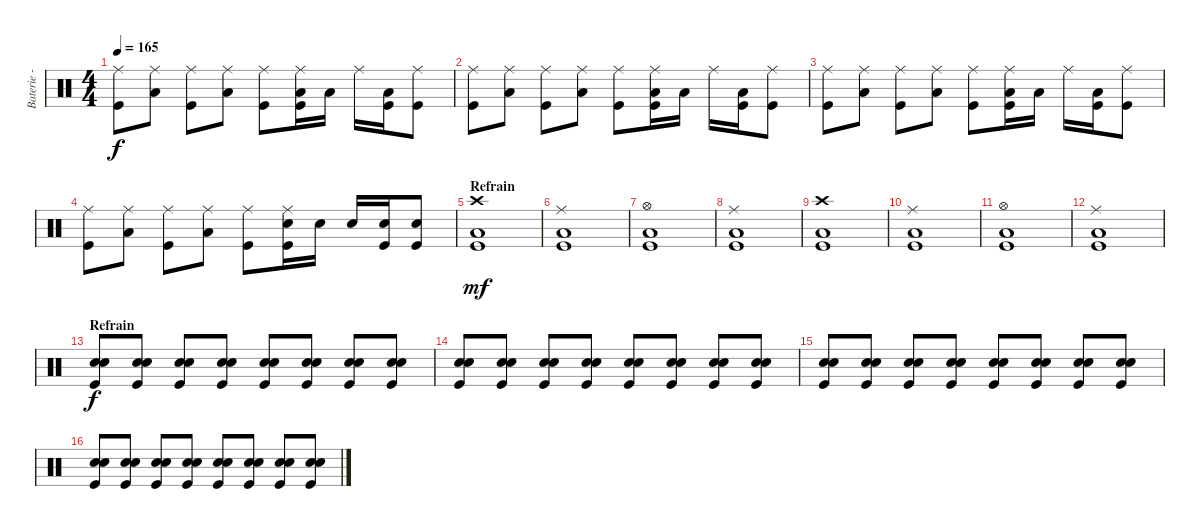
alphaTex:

\track ("Baterie - Alex" "Baterie - ") {instrument percussion}
\staff {score}
\articulation defaults
\ts (4 4)
\tempo 165
\clef neutral
\ks c
("Ride (middle)" "Kick (hit)").8{dy f} ("Ride (middle)" "Low Tom (hit)").8 ("Ride (middle)" "Kick (hit)").8 ("Ride (middle)" "Low Tom (hit)").8 ("Ride (middle)" "Kick (hit)").8 ("Ride (middle)" "Low Tom (hit)" "Kick (hit)").16 "Low Tom (hit)".16 "Ride (middle)".16 ("Low Tom (hit)" "Kick (hit)").16 ("Ride (middle)" "Kick (hit)").8 |
("Ride (middle)" "Kick (hit)").8 ("Ride (middle)" "Low Tom (hit)").8 ("Ride (middle)" "Kick (hit)").8 ("Ride (middle)" "Low Tom (hit)").8 ("Ride (middle)" "Kick (hit)").8 ("Ride (middle)" "Low Tom (hit)" "Kick (hit)").16 "Low Tom (hit)".16 "Ride (middle)".16 ("Low Tom (hit)" "Kick (hit)").16 ("Ride (middle)" "Kick (hit)").8 |
("Ride (middle)" "Kick (hit)").8 ("Ride (middle)" "Low Tom (hit)").8 ("Ride (middle)" "Kick (hit)").8 ("Ride (middle)" "Low Tom (hit)").8 ("Ride (middle)" "Kick (hit)").8 ("Ride (middle)" "Low Tom (hit)" "Kick (hit)").16 "Low Tom (hit)".16 "Ride (middle)".16 ("Low Tom (hit)" "Kick (hit)").16 ("Ride (middle)" "Kick (hit)").8 |
("Ride (middle)" "Kick (hit)").8 ("Ride (middle)" "Low Tom (hit)").8 ("Ride (middle)" "Kick (hit)").8 ("Ride (middle)" "Low Tom (hit)").8 ("Ride (middle)" "Kick (hit)").8 ("Ride (middle)" "Electric Snare (hit)" "Kick (hit)").16 "Electric Snare (hit)".16 "Electric Snare (hit)".16 ("Electric Snare (hit)" "Kick (hit)").16 ("Electric Snare (hit)" "Kick (hit)").8 |
\section ("" "Refrain")
("Crash high (hit)" "Low Tom (hit)" "Kick (hit)").1{dy mf} |
("Ride (middle)" "Low Tom (hit)" "Kick (hit)").1 |
("Hi-Hat (open)" "Low Tom (hit)" "Kick (hit)").1 |
("Ride (middle)" "Low Tom (hit)" "Kick (hit)").1 |
("Crash high (hit)" "Low Tom (hit)" "Kick (hit)").1 |
("Ride (middle)" "Low Tom (hit)" "Kick (hit)").1 |
("Hi-Hat (open)" "Low Tom (hit)" "Kick (hit)").1 |
("Ride (middle)" "Low Tom (hit)" "Kick (hit)").1 |
\section ("" "Refrain")
("Snare (hit) 2" "Electric Snare (hit)" "Kick (hit)").8{dy f volume 8} ("Snare (hit) 2" "Electric Snare (hit)" "Kick (hit)").8 ("Snare (hit) 2" "Electric Snare (hit)" "Kick (hit)").8 ("Snare (hit) 2" "Electric Snare (hit)" "Kick (hit)").8 ("Snare (hit) 2" "Electric Snare (hit)" "Kick (hit)").8 ("Snare (hit) 2" "Electric Snare (hit)" "Kick (hit)").8 ("Snare (hit) 2" "Electric Snare (hit)" "Kick (hit)").8 ("Snare (hit) 2" "Electric Snare (hit)" "Kick (hit)").8 |
("Snare (hit) 2" "Electric Snare (hit)" "Kick (hit)").8{volume 13} ("Snare (hit) 2" "Electric Snare (hit)" "Kick (hit)").8 ("Snare (hit) 2" "Electric Snare (hit)" "Kick (hit)").8 ("Snare (hit) 2" "Electric Snare (hit)" "Kick (hit)").8 ("Snare (hit) 2" "Electric Snare (hit)" "Kick (hit)").8 ("Snare (hit) 2" "Electric Snare (hit)" "Kick (hit)").8 ("Snare (hit) 2" "Electric Snare (hit)" "Kick (hit)").8 ("Snare (hit) 2" "Electric Snare (hit)" "Kick (hit)").8 |
("Snare (hit) 2" "Electric Snare (hit)" "Kick (hit)").8 ("Snare (hit) 2" "Electric Snare (hit)" "Kick (hit)").8 ("Snare (hit) 2" "Electric Snare (hit)" "Kick (hit)").8 ("Snare (hit) 2" "Electric Snare (hit)" "Kick (hit)").8 ("Snare (hit) 2" "Electric Snare (hit)" "Kick (hit)").8 ("Snare (hit) 2" "Electric Snare (hit)" "Kick (hit)").8 ("Snare (hit) 2" "Electric Snare (hit)" "Kick (hit)").8 ("Snare (hit) 2" "Electric Snare (hit)" "Kick (hit)").8 |
("Snare (hit) 2" "Electric Snare (hit)" "Kick (hit)").8 ("Snare (hit) 2" "Electric Snare (hit)" "Kick (hit)").8 ("Snare (hit) 2" "Electric Snare (hit)" "Kick (hit)").8 ("Snare (hit) 2" "Electric Snare (hit)" "Kick (hit)").8 ("Snare (hit) 2" "Electric Snare (hit)" "Kick (hit)").8 ("Snare (hit) 2" "Electric Snare (hit)" "Kick (hit)").8 ("Snare (hit) 2" "Electric Snare (hit)" "Kick (hit)").8 ("Snare (hit) 2" "Electric Snare (hit)" "Kick (hit)").8
